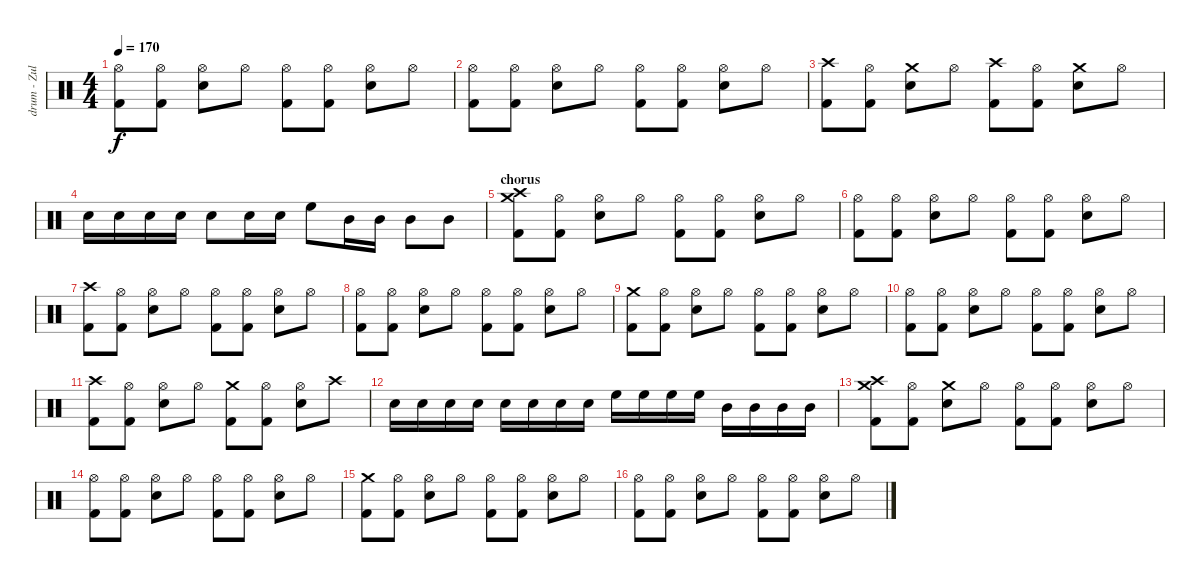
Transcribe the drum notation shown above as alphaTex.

\track ("drum - Zul ???" "drum - Zul") {instrument percussion}
\staff {score}
\articulation defaults
\ts (4 4)
\tempo 170
\clef neutral
\ks c
("Hi-Hat (open)" "Kick (hit) 2").8{dy f} ("Hi-Hat (open)" "Kick (hit) 2").8 ("Hi-Hat (open)" "Snare (hit) 2").8 "Hi-Hat (open)".8 ("Hi-Hat (open)" "Kick (hit) 2").8 ("Hi-Hat (open)" "Kick (hit) 2").8 ("Hi-Hat (open)" "Snare (hit) 2").8 "Hi-Hat (open)".8 |
("Hi-Hat (open)" "Kick (hit) 2").8 ("Hi-Hat (open)" "Kick (hit) 2").8 ("Hi-Hat (open)" "Snare (hit) 2").8 "Hi-Hat (open)".8 ("Hi-Hat (open)" "Kick (hit) 2").8 ("Hi-Hat (open)" "Kick (hit) 2").8 ("Hi-Hat (open)" "Snare (hit) 2").8 "Hi-Hat (open)".8 |
("Crash high (hit)" "Kick (hit) 2").8 ("Hi-Hat (open)" "Kick (hit) 2").8 ("Crash medium (hit)" "Snare (hit) 2").8 "Hi-Hat (open)".8 ("Crash high (hit)" "Kick (hit) 2").8 ("Hi-Hat (open)" "Kick (hit) 2").8 ("Crash medium (hit)" "Snare (hit) 2").8 "Hi-Hat (open)".8 |
"Snare (hit) 2".16 "Snare (hit) 2".16 "Snare (hit) 2".16 "Snare (hit) 2".16 "Snare (hit) 2".8 "Snare (hit) 2".16 "Snare (hit) 2".16 "High Floor Tom (hit)".8 "Mid Tom (hit)".16 "Mid Tom (hit)".16 "Mid Tom (hit)".8 "Mid Tom (hit)".8 |
\section ("" "chorus")
("Crash high (hit)" "Crash medium (hit)" "Kick (hit) 2").8 ("Hi-Hat (open)" "Kick (hit) 2").8 ("Hi-Hat (open)" "Snare (hit) 2").8 "Hi-Hat (open)".8 ("Hi-Hat (open)" "Kick (hit) 2").8 ("Hi-Hat (open)" "Kick (hit) 2").8 ("Hi-Hat (open)" "Snare (hit) 2").8 "Hi-Hat (open)".8 |
("Hi-Hat (open)" "Kick (hit) 2").8 ("Hi-Hat (open)" "Kick (hit) 2").8 ("Hi-Hat (open)" "Snare (hit) 2").8 "Hi-Hat (open)".8 ("Hi-Hat (open)" "Kick (hit) 2").8 ("Hi-Hat (open)" "Kick (hit) 2").8 ("Hi-Hat (open)" "Snare (hit) 2").8 "Hi-Hat (open)".8 |
("Crash high (hit)" "Kick (hit) 2").8 ("Hi-Hat (open)" "Kick (hit) 2").8 ("Hi-Hat (open)" "Snare (hit) 2").8 "Hi-Hat (open)".8 ("Hi-Hat (open)" "Kick (hit) 2").8 ("Hi-Hat (open)" "Kick (hit) 2").8 ("Hi-Hat (open)" "Snare (hit) 2").8 "Hi-Hat (open)".8 |
("Hi-Hat (open)" "Kick (hit) 2").8 ("Hi-Hat (open)" "Kick (hit) 2").8 ("Hi-Hat (open)" "Snare (hit) 2").8 "Hi-Hat (open)".8 ("Hi-Hat (open)" "Kick (hit) 2").8 ("Hi-Hat (open)" "Kick (hit) 2").8 ("Hi-Hat (open)" "Snare (hit) 2").8 "Hi-Hat (open)".8 |
("Crash medium (hit)" "Kick (hit) 2").8 ("Hi-Hat (open)" "Kick (hit) 2").8 ("Hi-Hat (open)" "Snare (hit) 2").8 "Hi-Hat (open)".8 ("Hi-Hat (open)" "Kick (hit) 2").8 ("Hi-Hat (open)" "Kick (hit) 2").8 ("Hi-Hat (open)" "Snare (hit) 2").8 "Hi-Hat (open)".8 |
("Hi-Hat (open)" "Kick (hit) 2").8 ("Hi-Hat (open)" "Kick (hit) 2").8 ("Hi-Hat (open)" "Snare (hit) 2").8 "Hi-Hat (open)".8 ("Hi-Hat (open)" "Kick (hit) 2").8 ("Hi-Hat (open)" "Kick (hit) 2").8 ("Hi-Hat (open)" "Snare (hit) 2").8 "Hi-Hat (open)".8 |
("Crash high (hit)" "Kick (hit) 2").8 ("Hi-Hat (open)" "Kick (hit) 2").8 ("Hi-Hat (open)" "Snare (hit) 2").8 "Hi-Hat (open)".8 ("Crash medium (hit)" "Kick (hit) 2").8 ("Hi-Hat (open)" "Kick (hit) 2").8 ("Hi-Hat (open)" "Snare (hit) 2").8 "Crash high (hit)".8 |
"Snare (hit) 2".16 "Snare (hit) 2".16 "Snare (hit) 2".16 "Snare (hit) 2".16 "Snare (hit) 2".16 "Snare (hit) 2".16 "Snare (hit) 2".16 "Snare (hit) 2".16 "High Floor Tom (hit)".16 "High Floor Tom (hit)".16 "High Floor Tom (hit)".16 "High Floor Tom (hit)".16 "Mid Tom (hit)".16 "Mid Tom (hit)".16 "Mid Tom (hit)".16 "Mid Tom (hit)".16 |
("Crash high (hit)" "Crash medium (hit)" "Kick (hit) 2").8 ("Hi-Hat (open)" "Kick (hit) 2").8 ("Crash medium (hit)" "Snare (hit) 2").8 "Hi-Hat (open)".8 ("Hi-Hat (open)" "Kick (hit) 2").8 ("Hi-Hat (open)" "Kick (hit) 2").8 ("Hi-Hat (open)" "Snare (hit) 2").8 "Hi-Hat (open)".8 |
("Hi-Hat (open)" "Kick (hit) 2").8 ("Hi-Hat (open)" "Kick (hit) 2").8 ("Hi-Hat (open)" "Snare (hit) 2").8 "Hi-Hat (open)".8 ("Hi-Hat (open)" "Kick (hit) 2").8 ("Hi-Hat (open)" "Kick (hit) 2").8 ("Hi-Hat (open)" "Snare (hit) 2").8 "Hi-Hat (open)".8 |
("Crash medium (hit)" "Kick (hit) 2").8 ("Hi-Hat (open)" "Kick (hit) 2").8 ("Hi-Hat (open)" "Snare (hit) 2").8 "Hi-Hat (open)".8 ("Hi-Hat (open)" "Kick (hit) 2").8 ("Hi-Hat (open)" "Kick (hit) 2").8 ("Hi-Hat (open)" "Snare (hit) 2").8 "Hi-Hat (open)".8 |
("Hi-Hat (open)" "Kick (hit) 2").8 ("Hi-Hat (open)" "Kick (hit) 2").8 ("Hi-Hat (open)" "Snare (hit) 2").8 "Hi-Hat (open)".8 ("Hi-Hat (open)" "Kick (hit) 2").8 ("Hi-Hat (open)" "Kick (hit) 2").8 ("Hi-Hat (open)" "Snare (hit) 2").8 "Hi-Hat (open)".8
